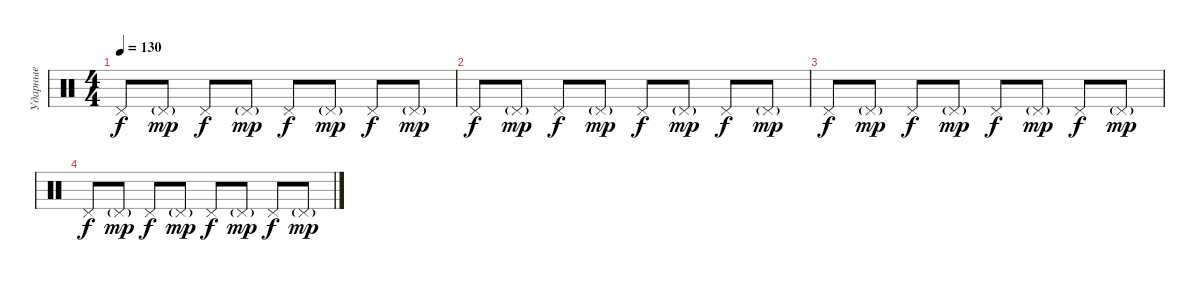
\track ("Ударные" "Ударные") {instrument percussion}
\staff {score}
\articulation defaults
\ts (4 4)
\tempo 130
\clef neutral
\ks c "Pedal Hi-Hat (hit)".8{dy f} "Pedal Hi-Hat (hit)"{g}.8{dy mp} "Pedal Hi-Hat (hit)".8{dy f} "Pedal Hi-Hat (hit)"{g}.8{dy mp} "Pedal Hi-Hat (hit)".8{dy f} "Pedal Hi-Hat (hit)"{g}.8{dy mp} "Pedal Hi-Hat (hit)".8{dy f} "Pedal Hi-Hat (hit)"{g}.8{dy mp}
|
"Pedal Hi-Hat (hit)".8{dy f} "Pedal Hi-Hat (hit)"{g}.8{dy mp} "Pedal Hi-Hat (hit)".8{dy f} "Pedal Hi-Hat (hit)"{g}.8{dy mp} "Pedal Hi-Hat (hit)".8{dy f} "Pedal Hi-Hat (hit)"{g}.8{dy mp} "Pedal Hi-Hat (hit)".8{dy f} "Pedal Hi-Hat (hit)"{g}.8{dy mp} |
"Pedal Hi-Hat (hit)".8{dy f} "Pedal Hi-Hat (hit)"{g}.8{dy mp} "Pedal Hi-Hat (hit)".8{dy f} "Pedal Hi-Hat (hit)"{g}.8{dy mp} "Pedal Hi-Hat (hit)".8{dy f} "Pedal Hi-Hat (hit)"{g}.8{dy mp} "Pedal Hi-Hat (hit)".8{dy f} "Pedal Hi-Hat (hit)"{g}.8{dy mp} |
"Pedal Hi-Hat (hit)".8{dy f} "Pedal Hi-Hat (hit)"{g}.8{dy mp} "Pedal Hi-Hat (hit)".8{dy f} "Pedal Hi-Hat (hit)"{g}.8{dy mp} "Pedal Hi-Hat (hit)".8{dy f} "Pedal Hi-Hat (hit)"{g}.8{dy mp} "Pedal Hi-Hat (hit)".8{dy f} "Pedal Hi-Hat (hit)"{g}.8{dy mp}
